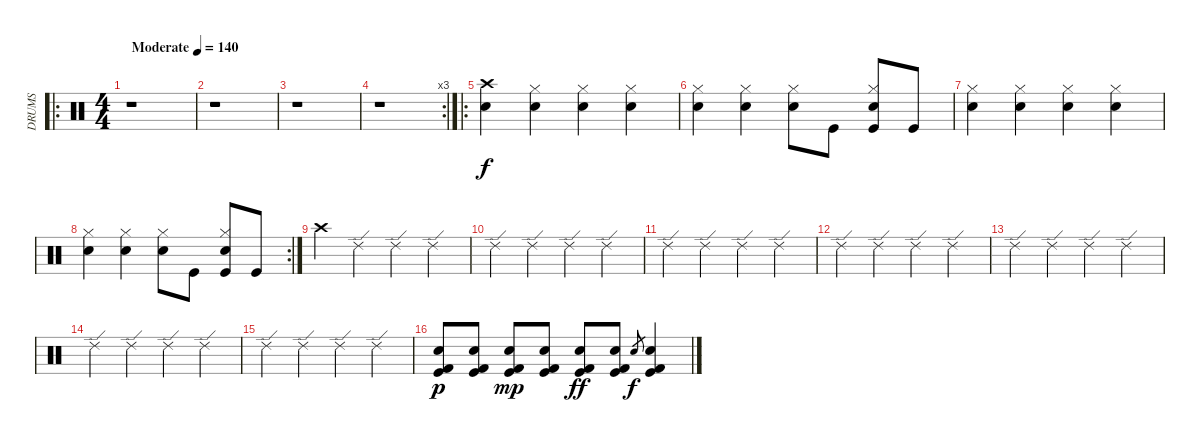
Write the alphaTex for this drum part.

\track ("DRUMS" "DRUMS") {instrument percussion}
\staff {score}
\articulation defaults
\ro
\ts (4 4)
\tempo (140 "Moderate")
\clef neutral
\ks c
r.1{dy f} |
r.1 |
r.1 |
\rc 3
r.1 |
\ro
("Crash high (hit)" "Electric Snare (hit)").4 ("Hi-Hat (closed)" "Electric Snare (hit)").4 ("Hi-Hat (closed)" "Electric Snare (hit)").4 ("Hi-Hat (closed)" "Electric Snare (hit)").4 |
("Hi-Hat (closed)" "Electric Snare (hit)").4 ("Hi-Hat (closed)" "Electric Snare (hit)").4 ("Hi-Hat (closed)" "Electric Snare (hit)").8 "Kick (hit)".8 ("Electric Snare (hit)" "Kick (hit)" "Hi-Hat (closed)").8 "Kick (hit)".8 |
("Hi-Hat (closed)" "Electric Snare (hit)").4 ("Hi-Hat (closed)" "Electric Snare (hit)").4 ("Hi-Hat (closed)" "Electric Snare (hit)").4 ("Hi-Hat (closed)" "Electric Snare (hit)").4 |
\rc 2
("Hi-Hat (closed)" "Electric Snare (hit)").4 ("Hi-Hat (closed)" "Electric Snare (hit)").4 ("Hi-Hat (closed)" "Electric Snare (hit)").8 "Kick (hit)".8 ("Electric Snare (hit)" "Kick (hit)" "Hi-Hat (closed)").8 "Kick (hit)".8 |
"Crash high (hit)".4 "Ride (edge) 2".4 "Ride (edge) 2".4 "Ride (edge) 2".4 |
"Ride (edge) 2".4 "Ride (edge) 2".4 "Ride (edge) 2".4 "Ride (edge) 2".4 |
"Ride (edge) 2".4 "Ride (edge) 2".4 "Ride (edge) 2".4 "Ride (edge) 2".4 |
"Ride (edge) 2".4 "Ride (edge) 2".4 "Ride (edge) 2".4 "Ride (edge) 2".4 |
"Ride (edge) 2".4 "Ride (edge) 2".4 "Ride (edge) 2".4 "Ride (edge) 2".4 |
"Ride (edge) 2".4 "Ride (edge) 2".4 "Ride (edge) 2".4 "Ride (edge) 2".4 |
"Ride (edge) 2".4 "Ride (edge) 2".4 "Ride (edge) 2".4 "Ride (edge) 2".4 |
("Electric Snare (hit)" "Kick (hit)" "Kick (hit) 2").8{dy p} ("Electric Snare (hit)" "Kick (hit)" "Kick (hit) 2").8 ("Electric Snare (hit)" "Kick (hit)" "Kick (hit) 2").8{dy mp} ("Electric Snare (hit)" "Kick (hit)" "Kick (hit) 2").8 ("Electric Snare (hit)" "Kick (hit)" "Kick (hit) 2").8{dy ff} ("Electric Snare (hit)" "Kick (hit)" "Kick (hit) 2").8 "Electric Snare (hit)".8{gr dy f} ("Electric Snare (hit)" "Kick (hit)" "Kick (hit) 2").4
